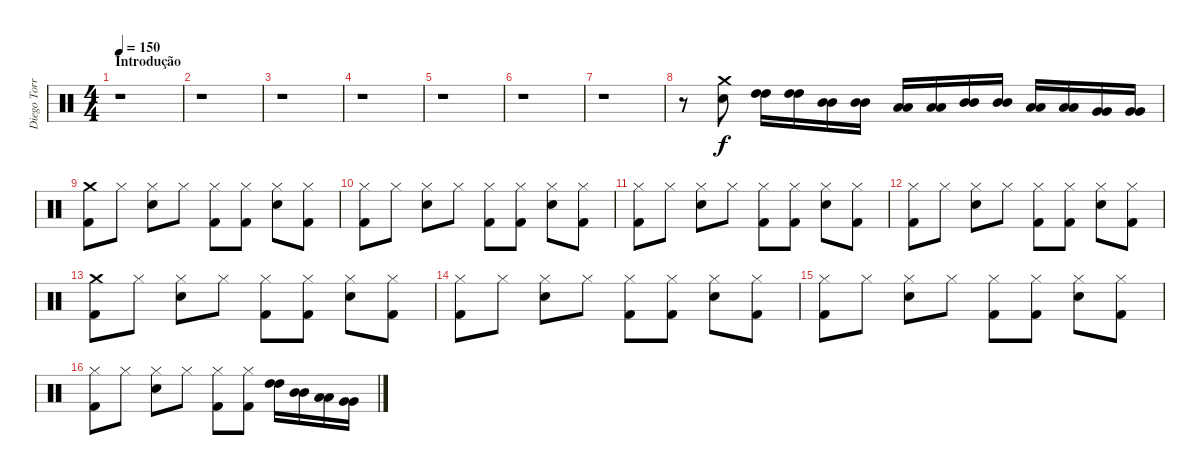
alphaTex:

\track ("Diego Torres [Bateria]" "Diego Torr") {instrument percussion}
\staff {score}
\articulation defaults
\ts (4 4)
\section ("" "Introdução")
\tempo 150
\clef neutral
\ks c
r.1{dy f} |
r.1 |
r.1 |
r.1 |
r.1 |
r.1 |
r.1 |
r.8 ("Crash medium (hit)" "Electric Snare (hit)").8 ("High Tom (hit)" "High Tom (hit)").16 ("High Tom (hit)" "High Tom (hit)").16 ("Mid Tom (hit)" "Mid Tom (hit)").16 ("Mid Tom (hit)" "Mid Tom (hit)").16 ("Low Tom (hit)" "Low Tom (hit)").16 ("Low Tom (hit)" "Low Tom (hit)").16 ("Mid Tom (hit)" "Mid Tom (hit)").16 ("Mid Tom (hit)" "Mid Tom (hit)").16 ("Low Tom (hit)" "Low Tom (hit)").16 ("Low Tom (hit)" "Low Tom (hit)").16 ("Very Low Tom (hit)" "Very Low Tom (hit)").16 ("Very Low Tom (hit)" "Very Low Tom (hit)").16 |
("Crash medium (hit)" "Kick (hit) 2").8 "Hi-Hat (closed)".8 ("Hi-Hat (closed)" "Electric Snare (hit)").8 "Hi-Hat (closed)".8 ("Hi-Hat (closed)" "Kick (hit) 2").8 ("Hi-Hat (closed)" "Kick (hit) 2").8 ("Hi-Hat (closed)" "Electric Snare (hit)").8 ("Hi-Hat (closed)" "Kick (hit) 2").8 |
("Hi-Hat (closed)" "Kick (hit) 2").8 "Hi-Hat (closed)".8 ("Hi-Hat (closed)" "Electric Snare (hit)").8 "Hi-Hat (closed)".8 ("Hi-Hat (closed)" "Kick (hit) 2").8 ("Hi-Hat (closed)" "Kick (hit) 2").8 ("Hi-Hat (closed)" "Electric Snare (hit)").8 ("Hi-Hat (closed)" "Kick (hit) 2").8 |
("Hi-Hat (closed)" "Kick (hit) 2").8 "Hi-Hat (closed)".8 ("Hi-Hat (closed)" "Electric Snare (hit)").8 "Hi-Hat (closed)".8 ("Hi-Hat (closed)" "Kick (hit) 2").8 ("Hi-Hat (closed)" "Kick (hit) 2").8 ("Hi-Hat (closed)" "Electric Snare (hit)").8 ("Hi-Hat (closed)" "Kick (hit) 2").8 |
("Hi-Hat (closed)" "Kick (hit) 2").8 "Hi-Hat (closed)".8 ("Hi-Hat (closed)" "Electric Snare (hit)").8 "Hi-Hat (closed)".8 ("Hi-Hat (closed)" "Kick (hit) 2").8 ("Hi-Hat (closed)" "Kick (hit) 2").8 ("Hi-Hat (closed)" "Electric Snare (hit)").8 ("Hi-Hat (closed)" "Kick (hit) 2").8 |
("Crash medium (hit)" "Kick (hit) 2").8 "Hi-Hat (closed)".8 ("Hi-Hat (closed)" "Electric Snare (hit)").8 "Hi-Hat (closed)".8 ("Hi-Hat (closed)" "Kick (hit) 2").8 ("Hi-Hat (closed)" "Kick (hit) 2").8 ("Hi-Hat (closed)" "Electric Snare (hit)").8 ("Hi-Hat (closed)" "Kick (hit) 2").8 |
("Hi-Hat (closed)" "Kick (hit) 2").8 "Hi-Hat (closed)".8 ("Hi-Hat (closed)" "Electric Snare (hit)").8 "Hi-Hat (closed)".8 ("Hi-Hat (closed)" "Kick (hit) 2").8 ("Hi-Hat (closed)" "Kick (hit) 2").8 ("Hi-Hat (closed)" "Electric Snare (hit)").8 ("Hi-Hat (closed)" "Kick (hit) 2").8 |
("Hi-Hat (closed)" "Kick (hit) 2").8 "Hi-Hat (closed)".8 ("Hi-Hat (closed)" "Electric Snare (hit)").8 "Hi-Hat (closed)".8 ("Hi-Hat (closed)" "Kick (hit) 2").8 ("Hi-Hat (closed)" "Kick (hit) 2").8 ("Hi-Hat (closed)" "Electric Snare (hit)").8 ("Hi-Hat (closed)" "Kick (hit) 2").8 |
("Hi-Hat (closed)" "Kick (hit) 2").8 "Hi-Hat (closed)".8 ("Hi-Hat (closed)" "Electric Snare (hit)").8 "Hi-Hat (closed)".8 ("Hi-Hat (closed)" "Kick (hit) 2").8 ("Hi-Hat (closed)" "Kick (hit) 2").8 ("High Tom (hit)" "High Tom (hit)").16 ("Mid Tom (hit)" "Mid Tom (hit)").16 ("Low Tom (hit)" "Low Tom (hit)").16 ("Very Low Tom (hit)" "Very Low Tom (hit)").16
